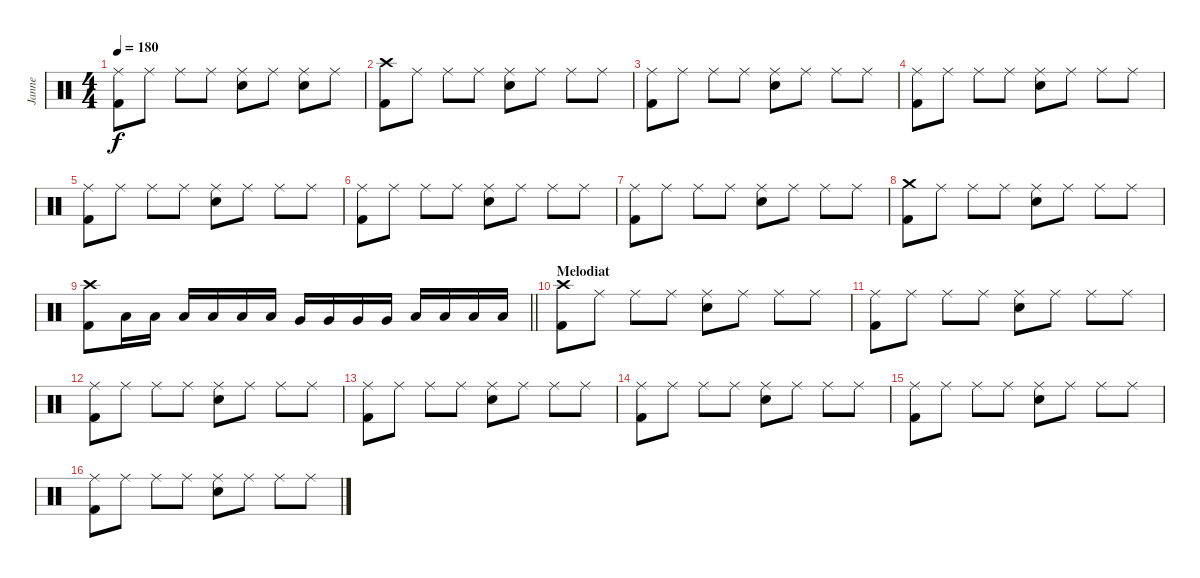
\track ("Janne" "Janne") {instrument percussion}
\staff {score}
\articulation defaults
\ts (4 4)
\tempo 180
\clef neutral
\ks c
("Ride (middle)" "Kick (hit) 2").8{dy f} "Ride (middle)".8 "Ride (middle)".8 "Ride (middle)".8 ("Ride (middle)" "Electric Snare (hit)").8 "Ride (middle)".8 ("Ride (middle)" "Electric Snare (hit)").8 "Ride (middle)".8 |
("Crash high (hit)" "Kick (hit) 2").8 "Ride (middle)".8 "Ride (middle)".8 "Ride (middle)".8 ("Ride (middle)" "Electric Snare (hit)").8 "Ride (middle)".8 "Ride (middle)".8 "Ride (middle)".8 |
("Ride (middle)" "Kick (hit) 2").8 "Ride (middle)".8 "Ride (middle)".8 "Ride (middle)".8 ("Ride (middle)" "Electric Snare (hit)").8 "Ride (middle)".8 "Ride (middle)".8 "Ride (middle)".8 |
("Ride (middle)" "Kick (hit) 2").8 "Ride (middle)".8 "Ride (middle)".8 "Ride (middle)".8 ("Ride (middle)" "Electric Snare (hit)").8 "Ride (middle)".8 "Ride (middle)".8 "Ride (middle)".8 |
("Ride (middle)" "Kick (hit) 2").8 "Ride (middle)".8 "Ride (middle)".8 "Ride (middle)".8 ("Ride (middle)" "Electric Snare (hit)").8 "Ride (middle)".8 "Ride (middle)".8 "Ride (middle)".8 |
("Ride (middle)" "Kick (hit) 2").8 "Ride (middle)".8 "Ride (middle)".8 "Ride (middle)".8 ("Ride (middle)" "Electric Snare (hit)").8 "Ride (middle)".8 "Ride (middle)".8 "Ride (middle)".8 |
("Ride (middle)" "Kick (hit) 2").8 "Ride (middle)".8 "Ride (middle)".8 "Ride (middle)".8 ("Ride (middle)" "Electric Snare (hit)").8 "Ride (middle)".8 "Ride (middle)".8 "Ride (middle)".8 |
("Crash medium (hit)" "Kick (hit) 2").8 "Ride (middle)".8 "Ride (middle)".8 "Ride (middle)".8 ("Ride (middle)" "Electric Snare (hit)").8 "Ride (middle)".8 "Ride (middle)".8 "Ride (middle)".8 |
\barLineRight lightlight
("Crash high (hit)" "Kick (hit) 2").8 "Low Tom (hit)".16 "Low Tom (hit)".16 "Low Tom (hit)".16 "Low Tom (hit)".16 "Low Tom (hit)".16 "Low Tom (hit)".16 "Very Low Tom (hit)".16 "Very Low Tom (hit)".16 "Very Low Tom (hit)".16 "Very Low Tom (hit)".16 "Low Floor Tom (hit)".16 "Low Floor Tom (hit)".16 "Low Floor Tom (hit)".16 "Low Floor Tom (hit)".16 |
\section ("" "Melodiat")
("Crash high (hit)" "Kick (hit) 2").8 "Ride (middle)".8 "Ride (middle)".8 "Ride (middle)".8 ("Ride (middle)" "Electric Snare (hit)").8 "Ride (middle)".8 "Ride (middle)".8 "Ride (middle)".8 |
("Ride (middle)" "Kick (hit) 2").8 "Ride (middle)".8 "Ride (middle)".8 "Ride (middle)".8 ("Ride (middle)" "Electric Snare (hit)").8 "Ride (middle)".8 "Ride (middle)".8 "Ride (middle)".8 |
("Ride (middle)" "Kick (hit) 2").8 "Ride (middle)".8 "Ride (middle)".8 "Ride (middle)".8 ("Ride (middle)" "Electric Snare (hit)").8 "Ride (middle)".8 "Ride (middle)".8 "Ride (middle)".8 |
("Ride (middle)" "Kick (hit) 2").8 "Ride (middle)".8 "Ride (middle)".8 "Ride (middle)".8 ("Ride (middle)" "Electric Snare (hit)").8 "Ride (middle)".8 "Ride (middle)".8 "Ride (middle)".8 |
("Ride (middle)" "Kick (hit) 2").8 "Ride (middle)".8 "Ride (middle)".8 "Ride (middle)".8 ("Ride (middle)" "Electric Snare (hit)").8 "Ride (middle)".8 "Ride (middle)".8 "Ride (middle)".8 |
("Ride (middle)" "Kick (hit) 2").8 "Ride (middle)".8 "Ride (middle)".8 "Ride (middle)".8 ("Ride (middle)" "Electric Snare (hit)").8 "Ride (middle)".8 "Ride (middle)".8 "Ride (middle)".8 |
("Ride (middle)" "Kick (hit) 2").8 "Ride (middle)".8 "Ride (middle)".8 "Ride (middle)".8 ("Ride (middle)" "Electric Snare (hit)").8 "Ride (middle)".8 "Ride (middle)".8 "Ride (middle)".8
